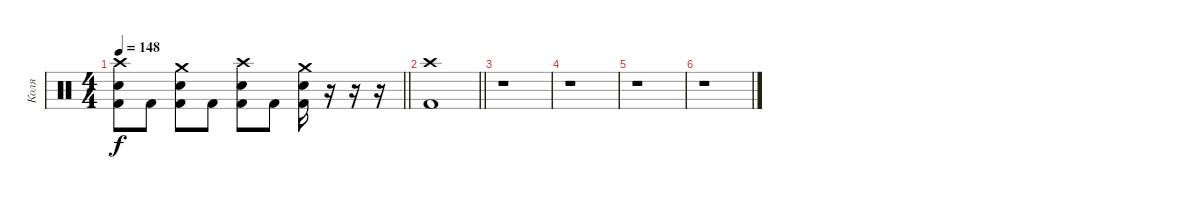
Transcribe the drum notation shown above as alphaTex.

\track ("Коля" "Коля") {instrument percussion}
\staff {score}
\articulation defaults
\ts (4 4)
\tempo 148
\clef neutral
\barLineRight lightlight
\ks c
("Kick (hit) 2" "Electric Snare (hit)" "Crash high (hit)").8{dy f} "Kick (hit) 2".8 ("Kick (hit) 2" "Electric Snare (hit)" "Crash medium (hit)").8 "Kick (hit) 2".8 ("Kick (hit) 2" "Electric Snare (hit)" "Crash high (hit)").8 "Kick (hit) 2".8 ("Kick (hit) 2" "Electric Snare (hit)" "Crash medium (hit)").16 r.16 r.16 r.16 |
\barLineRight lightlight
("Kick (hit) 2" "Crash high (hit)").1 |
r.1 |
r.1 |
r.1 |
r.1
